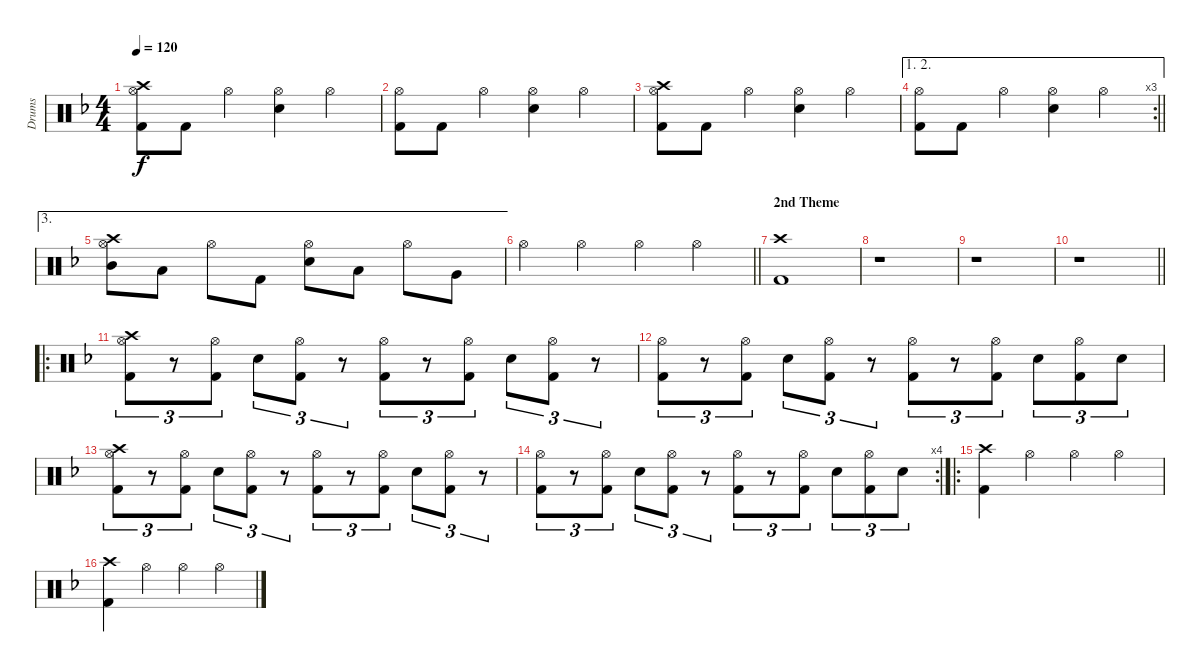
\track ("Drums" "Drums") {instrument percussion}
\staff {score}
\articulation defaults
\ts (4 4)
\tempo 120
\clef neutral
\ks dminor
("Crash high (hit)" "Hi-Hat (open)" "Kick (hit) 2").8{dy f} "Kick (hit) 2".8 "Hi-Hat (open)".4 ("Hi-Hat (open)" "Snare (hit) 2").4 "Hi-Hat (open)".4 |
("Hi-Hat (open)" "Kick (hit) 2").8 "Kick (hit) 2".8 "Hi-Hat (open)".4 ("Hi-Hat (open)" "Snare (hit) 2").4 "Hi-Hat (open)".4 |
("Crash high (hit)" "Hi-Hat (open)" "Kick (hit) 2").8 "Kick (hit) 2".8 "Hi-Hat (open)".4 ("Hi-Hat (open)" "Snare (hit) 2").4 "Hi-Hat (open)".4 |
\ae (1 2)
\rc 3
\barLineRight lightlight
("Hi-Hat (open)" "Kick (hit) 2").8 "Kick (hit) 2".8 "Hi-Hat (open)".4 ("Hi-Hat (open)" "Snare (hit) 2").4 "Hi-Hat (open)".4 |
\ae 3
("Crash high (hit)" "Hi-Hat (open)" "Mid Tom (hit)").8 "Low Tom (hit)".8 "Hi-Hat (open)".8 "Kick (hit) 2".8 ("Hi-Hat (open)" "Snare (hit) 2").8 "Low Tom (hit)".8 "Hi-Hat (open)".8 "Very Low Tom (hit)".8 |
\barLineRight lightlight "Hi-Hat (open)".4 "Hi-Hat (open)".4 "Hi-Hat (open)".4 "Hi-Hat (open)".4
|
\section ("" "2nd Theme")
("Crash high (hit)" "Kick (hit) 2").1 |
r.1 |
r.1 |
\barLineRight lightlight
r.1 |
\ro
("Crash high (hit)" "Hi-Hat (open)" "Kick (hit) 2").8{tu (3 2)} r.8{tu (3 2)} ("Hi-Hat (open)" "Kick (hit) 2").8{tu (3 2)} "Snare (hit) 2".8{tu (3 2)} ("Hi-Hat (open)" "Kick (hit) 2").8{tu (3 2)} r.8{tu (3 2)} ("Hi-Hat (open)" "Kick (hit) 2").8{tu (3 2)} r.8{tu (3 2)} ("Hi-Hat (open)" "Kick (hit) 2").8{tu (3 2)} "Snare (hit) 2".8{tu (3 2)} ("Hi-Hat (open)" "Kick (hit) 2").8{tu (3 2)} r.8{tu (3 2)} |
("Hi-Hat (open)" "Kick (hit) 2").8{tu (3 2)} r.8{tu (3 2)} ("Hi-Hat (open)" "Kick (hit) 2").8{tu (3 2)} "Snare (hit) 2".8{tu (3 2)} ("Hi-Hat (open)" "Kick (hit) 2").8{tu (3 2)} r.8{tu (3 2)} ("Hi-Hat (open)" "Kick (hit) 2").8{tu (3 2)} r.8{tu (3 2)} ("Hi-Hat (open)" "Kick (hit) 2").8{tu (3 2)} "Snare (hit) 2".8{tu (3 2)} ("Hi-Hat (open)" "Kick (hit) 2").8{tu (3 2)} "Snare (hit) 2".8{tu (3 2)} |
("Crash high (hit)" "Hi-Hat (open)" "Kick (hit) 2").8{tu (3 2)} r.8{tu (3 2)} ("Hi-Hat (open)" "Kick (hit) 2").8{tu (3 2)} "Snare (hit) 2".8{tu (3 2)} ("Hi-Hat (open)" "Kick (hit) 2").8{tu (3 2)} r.8{tu (3 2)} ("Hi-Hat (open)" "Kick (hit) 2").8{tu (3 2)} r.8{tu (3 2)} ("Hi-Hat (open)" "Kick (hit) 2").8{tu (3 2)} "Snare (hit) 2".8{tu (3 2)} ("Hi-Hat (open)" "Kick (hit) 2").8{tu (3 2)} r.8{tu (3 2)} |
\rc 4
("Hi-Hat (open)" "Kick (hit) 2").8{tu (3 2)} r.8{tu (3 2)} ("Hi-Hat (open)" "Kick (hit) 2").8{tu (3 2)} "Snare (hit) 2".8{tu (3 2)} ("Hi-Hat (open)" "Kick (hit) 2").8{tu (3 2)} r.8{tu (3 2)} ("Hi-Hat (open)" "Kick (hit) 2").8{tu (3 2)} r.8{tu (3 2)} ("Hi-Hat (open)" "Kick (hit) 2").8{tu (3 2)} "Snare (hit) 2".8{tu (3 2)} ("Hi-Hat (open)" "Kick (hit) 2").8{tu (3 2)} "Snare (hit) 2".8{tu (3 2)} |
\ro
("Crash high (hit)" "Kick (hit) 2").4 "Hi-Hat (open)".4 "Hi-Hat (open)".4 "Hi-Hat (open)".4 |
("Crash high (hit)" "Kick (hit) 2").4 "Hi-Hat (open)".4 "Hi-Hat (open)".4 "Hi-Hat (open)".4
